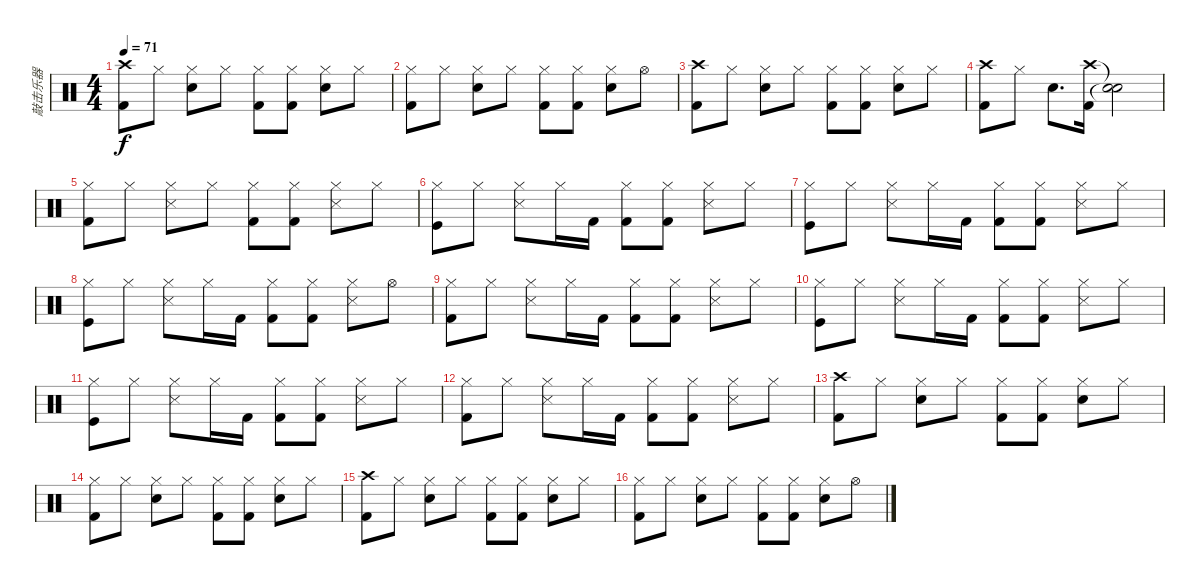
\track ("敲击乐器" "敲击乐器") {instrument percussion}
\staff {score}
\articulation defaults
\ts (4 4)
\tempo 71
\clef neutral
\ks c
("Crash high (hit)" "Kick (hit) 2").8{dy f} "Hi-Hat (closed)".8 ("Hi-Hat (closed)" "Electric Snare (hit)").8 "Hi-Hat (closed)".8 ("Hi-Hat (closed)" "Kick (hit) 2").8 ("Hi-Hat (closed)" "Kick (hit) 2").8 ("Hi-Hat (closed)" "Electric Snare (hit)").8 "Hi-Hat (closed)".8 |
("Hi-Hat (closed)" "Kick (hit) 2").8 "Hi-Hat (closed)".8 ("Hi-Hat (closed)" "Electric Snare (hit)").8 "Hi-Hat (closed)".8 ("Hi-Hat (closed)" "Kick (hit) 2").8 ("Hi-Hat (closed)" "Kick (hit) 2").8 ("Hi-Hat (closed)" "Electric Snare (hit)").8 "Hi-Hat (open)".8 |
("Crash high (hit)" "Kick (hit) 2").8 "Hi-Hat (closed)".8 ("Hi-Hat (closed)" "Electric Snare (hit)").8 "Hi-Hat (closed)".8 ("Hi-Hat (closed)" "Kick (hit) 2").8 ("Hi-Hat (closed)" "Kick (hit) 2").8 ("Hi-Hat (closed)" "Electric Snare (hit)").8 "Hi-Hat (closed)".8 |
("Crash high (hit)" "Kick (hit) 2").8 "Hi-Hat (closed)".8 "Electric Snare (hit)".8{d} ("Crash high (hit)" "Kick (hit) 2").16 ("Snare (hit)"{t} "Snare (hit)"{t}).2 |
("Hi-Hat (closed)" "Kick (hit) 2").8 "Hi-Hat (closed)".8 ("Hi-Hat (closed)" "Snare (side stick) 3").8 "Hi-Hat (closed)".8 ("Hi-Hat (closed)" "Kick (hit) 2").8 ("Hi-Hat (closed)" "Kick (hit) 2").8 ("Hi-Hat (closed)" "Snare (side stick) 3").8 "Hi-Hat (closed)".8 |
("Hi-Hat (closed)" "Kick (hit)").8 "Hi-Hat (closed)".8 ("Hi-Hat (closed)" "Snare (side stick) 3").8 "Hi-Hat (closed)".16 "Kick (hit) 2".16 ("Hi-Hat (closed)" "Kick (hit) 2").8 ("Hi-Hat (closed)" "Kick (hit) 2").8 ("Hi-Hat (closed)" "Snare (side stick) 3").8 "Hi-Hat (closed)".8 |
("Hi-Hat (closed)" "Kick (hit)").8 "Hi-Hat (closed)".8 ("Hi-Hat (closed)" "Snare (side stick) 3").8 "Hi-Hat (closed)".16 "Kick (hit) 2".16 ("Hi-Hat (closed)" "Kick (hit) 2").8 ("Hi-Hat (closed)" "Kick (hit) 2").8 ("Hi-Hat (closed)" "Snare (side stick) 3").8 "Hi-Hat (closed)".8 |
("Hi-Hat (closed)" "Kick (hit)").8 "Hi-Hat (closed)".8 ("Hi-Hat (closed)" "Snare (side stick) 3").8 "Hi-Hat (closed)".16 "Kick (hit) 2".16 ("Hi-Hat (closed)" "Kick (hit) 2").8 ("Hi-Hat (closed)" "Kick (hit) 2").8 ("Hi-Hat (closed)" "Snare (side stick) 3").8 "Hi-Hat (open)".8 |
("Hi-Hat (closed)" "Kick (hit) 2").8 "Hi-Hat (closed)".8 ("Hi-Hat (closed)" "Snare (side stick) 3").8 "Hi-Hat (closed)".16 "Kick (hit) 2".16 ("Hi-Hat (closed)" "Kick (hit) 2").8 ("Hi-Hat (closed)" "Kick (hit) 2").8 ("Hi-Hat (closed)" "Snare (side stick) 3").8 "Hi-Hat (closed)".8 |
("Hi-Hat (closed)" "Kick (hit)").8 "Hi-Hat (closed)".8 ("Hi-Hat (closed)" "Snare (side stick) 3").8 "Hi-Hat (closed)".16 "Kick (hit) 2".16 ("Hi-Hat (closed)" "Kick (hit) 2").8 ("Hi-Hat (closed)" "Kick (hit) 2").8 ("Hi-Hat (closed)" "Snare (side stick) 3").8 "Hi-Hat (closed)".8 |
("Hi-Hat (closed)" "Kick (hit)").8 "Hi-Hat (closed)".8 ("Hi-Hat (closed)" "Snare (side stick) 3").8 "Hi-Hat (closed)".16 "Kick (hit) 2".16 ("Hi-Hat (closed)" "Kick (hit) 2").8 ("Hi-Hat (closed)" "Kick (hit) 2").8 ("Hi-Hat (closed)" "Snare (side stick) 3").8 "Hi-Hat (closed)".8 |
("Hi-Hat (closed)" "Kick (hit) 2").8 "Hi-Hat (closed)".8 ("Hi-Hat (closed)" "Snare (side stick) 3").8 "Hi-Hat (closed)".16 "Kick (hit) 2".16 ("Hi-Hat (closed)" "Kick (hit) 2").8 ("Hi-Hat (closed)" "Kick (hit) 2").8 ("Hi-Hat (closed)" "Snare (side stick) 3").8 "Hi-Hat (closed)".8 |
("Crash high (hit)" "Kick (hit) 2").8 "Hi-Hat (closed)".8 ("Hi-Hat (closed)" "Electric Snare (hit)").8 "Hi-Hat (closed)".8 ("Hi-Hat (closed)" "Kick (hit) 2").8 ("Hi-Hat (closed)" "Kick (hit) 2").8 ("Hi-Hat (closed)" "Electric Snare (hit)").8 "Hi-Hat (closed)".8 |
("Hi-Hat (closed)" "Kick (hit) 2").8 "Hi-Hat (closed)".8 ("Hi-Hat (closed)" "Electric Snare (hit)").8 "Hi-Hat (closed)".8 ("Hi-Hat (closed)" "Kick (hit) 2").8 ("Hi-Hat (closed)" "Kick (hit) 2").8 ("Hi-Hat (closed)" "Electric Snare (hit)").8 "Hi-Hat (closed)".8 |
("Crash high (hit)" "Kick (hit) 2").8 "Hi-Hat (closed)".8 ("Hi-Hat (closed)" "Electric Snare (hit)").8 "Hi-Hat (closed)".8 ("Hi-Hat (closed)" "Kick (hit) 2").8 ("Hi-Hat (closed)" "Kick (hit) 2").8 ("Hi-Hat (closed)" "Electric Snare (hit)").8 "Hi-Hat (closed)".8 |
("Hi-Hat (closed)" "Kick (hit) 2").8 "Hi-Hat (closed)".8 ("Hi-Hat (closed)" "Electric Snare (hit)").8 "Hi-Hat (closed)".8 ("Hi-Hat (closed)" "Kick (hit) 2").8 ("Hi-Hat (closed)" "Kick (hit) 2").8 ("Hi-Hat (closed)" "Electric Snare (hit)").8 "Hi-Hat (open)".8
